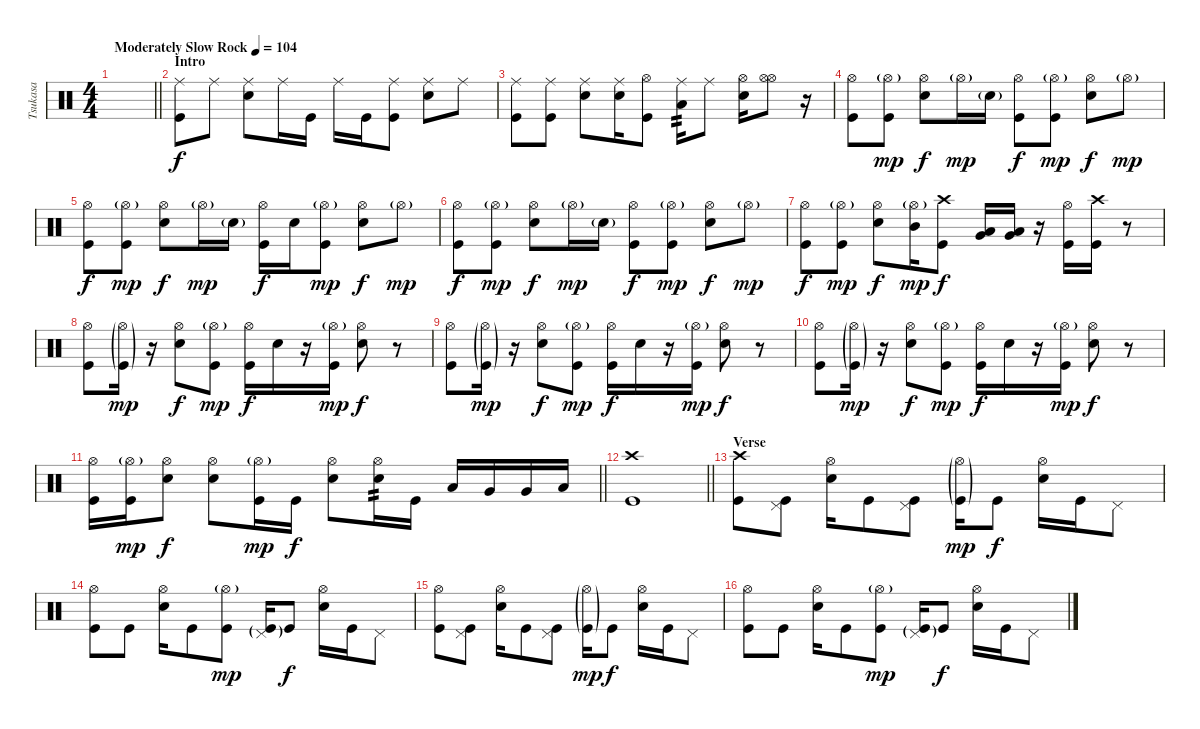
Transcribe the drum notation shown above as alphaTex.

\track ("Tsukasa" "Tsukasa") {instrument percussion}
\staff {score}
\articulation defaults
\ts (4 4)
\tempo (104 "Moderately Slow Rock")
\clef neutral
\barLineRight lightlight
\ks c
|
\section ("" "Intro")
("Ride (middle)" "Kick (hit)").8 "Ride (middle)".8 ("Ride (middle)" "Snare (hit) 2").8 "Ride (middle)".16 "Kick (hit)".16 "Ride (middle)".16 "Kick (hit)".16 ("Ride (middle)" "Kick (hit)").8 ("Ride (middle)" "Snare (hit) 2").8 "Ride (middle)".8 |
("Ride (middle)" "Kick (hit)").8 ("Ride (middle)" "Kick (hit)").8 ("Ride (middle)" "Snare (hit) 2").8 ("Ride (middle)" "Snare (hit) 2").16 ("Hi-Hat (open)" "Kick (hit)").8 ("Ride (middle)" "Low Tom (hit)").16{tp 2} "Ride (middle)".8 ("Hi-Hat (open)" "Snare (hit) 2").16 ("Hi-Hat (open)" "Hi-Hat (open)").8 r.16 |
("Hi-Hat (open)" "Kick (hit)").8 ("Hi-Hat (open)"{g} "Kick (hit)").8{dy mp} ("Hi-Hat (open)" "Snare (hit) 2").8{dy f} "Hi-Hat (open)"{g}.16{dy mp} "Snare (hit) 2"{g}.16 ("Hi-Hat (open)" "Kick (hit)").8{dy f} ("Hi-Hat (open)"{g} "Kick (hit)").8{dy mp} ("Hi-Hat (open)" "Snare (hit) 2").8{dy f} "Hi-Hat (open)"{g}.8{dy mp} |
("Hi-Hat (open)" "Kick (hit)").8{dy f} ("Hi-Hat (open)"{g} "Kick (hit)").8{dy mp} ("Hi-Hat (open)" "Snare (hit) 2").8{dy f} "Hi-Hat (open)"{g}.16{dy mp} "Snare (hit) 2"{g}.16 ("Hi-Hat (open)" "Kick (hit)").16{dy f} "Snare (hit) 2".16 ("Hi-Hat (open)"{g} "Kick (hit)").8{dy mp} ("Hi-Hat (open)" "Snare (hit) 2").8{dy f} "Hi-Hat (open)"{g}.8{dy mp} |
("Hi-Hat (open)" "Kick (hit)").8{dy f} ("Hi-Hat (open)"{g} "Kick (hit)").8{dy mp} ("Hi-Hat (open)" "Snare (hit) 2").8{dy f} "Hi-Hat (open)"{g}.16{dy mp} "Snare (hit) 2"{g}.16 ("Hi-Hat (open)" "Kick (hit)").8{dy f} ("Hi-Hat (open)"{g} "Kick (hit)").8{dy mp} ("Hi-Hat (open)" "Snare (hit) 2").8{dy f} "Hi-Hat (open)"{g}.8{dy mp} |
("Hi-Hat (open)" "Kick (hit)").8{dy f} ("Hi-Hat (open)"{g} "Kick (hit)").8{dy mp} ("Hi-Hat (open)" "Snare (hit) 2").8{dy f} ("Hi-Hat (open)"{g} "Mid Tom (hit)").16{dy mp} ("Crash high (hit)" "Kick (hit)").8{dy f} ("Very Low Tom (hit)" "Low Tom (hit)").16 ("Low Tom (hit)" "Very Low Tom (hit)").16 r.16 ("Hi-Hat (open)" "Kick (hit)").16 ("Crash high (hit)" "Kick (hit)").16 r.8 |
("Hi-Hat (open)" "Kick (hit)").8 ("Hi-Hat (open)"{g} "Kick (hit)"{g}).16{dy mp} r.16 ("Hi-Hat (open)" "Snare (hit) 2").8{dy f} ("Hi-Hat (open)"{g} "Kick (hit)").8{dy mp} ("Hi-Hat (open)" "Kick (hit)").16{dy f} "Snare (hit) 2".16 r.16 ("Hi-Hat (open)"{g} "Kick (hit)").16{dy mp} ("Hi-Hat (open)" "Snare (hit) 2").8{dy f} r.8 |
("Hi-Hat (open)" "Kick (hit)").8 ("Hi-Hat (open)"{g} "Kick (hit)"{g}).16{dy mp} r.16 ("Hi-Hat (open)" "Snare (hit) 2").8{dy f} ("Hi-Hat (open)"{g} "Kick (hit)").8{dy mp} ("Hi-Hat (open)" "Kick (hit)").16{dy f} "Snare (hit) 2".16 r.16 ("Hi-Hat (open)"{g} "Kick (hit)").16{dy mp} ("Hi-Hat (open)" "Snare (hit) 2").8{dy f} r.8 |
("Hi-Hat (open)" "Kick (hit)").8 ("Hi-Hat (open)"{g} "Kick (hit)"{g}).16{dy mp} r.16 ("Hi-Hat (open)" "Snare (hit) 2").8{dy f} ("Hi-Hat (open)"{g} "Kick (hit)").8{dy mp} ("Hi-Hat (open)" "Kick (hit)").16{dy f} "Snare (hit) 2".16 r.16 ("Hi-Hat (open)"{g} "Kick (hit)").16{dy mp} ("Hi-Hat (open)" "Snare (hit) 2").8{dy f} r.8 |
\barLineRight lightlight
("Hi-Hat (open)" "Kick (hit)").16 ("Hi-Hat (open)"{g} "Kick (hit)").16{dy mp} ("Hi-Hat (open)" "Snare (hit) 2").8{dy f} ("Hi-Hat (open)" "Snare (hit) 2").8 ("Hi-Hat (open)"{g} "Kick (hit)").16{dy mp} "Kick (hit)".16{dy f} ("Hi-Hat (open)" "Snare (hit) 2").8 ("Hi-Hat (open)" "Snare (hit) 2").16{tp 2} "Kick (hit)".16 "Low Tom (hit)".16 "Very Low Tom (hit)".16 "Very Low Tom (hit)".16 "Low Floor Tom (hit)".16 |
\section ("" "")
\barLineRight lightlight
("Crash high (hit)" "Kick (hit)").1 |
\section ("" "Verse")
("Crash high (hit)" "Kick (hit)").8 ("Pedal Hi-Hat (hit)" "Kick (hit)").8 ("Hi-Hat (open)" "Snare (hit) 2").16 "Kick (hit)".8 ("Pedal Hi-Hat (hit)" "Kick (hit)").8 ("Hi-Hat (open)"{g} "Kick (hit)"{g}).16{dy mp} "Kick (hit)".8{dy f} ("Hi-Hat (open)" "Snare (hit) 2").16 "Kick (hit)".16 "Pedal Hi-Hat (hit)".8 |
("Hi-Hat (open)" "Kick (hit)").8 "Kick (hit)".8 ("Hi-Hat (open)" "Snare (hit) 2").16 "Kick (hit)".8 ("Hi-Hat (open)"{g} "Kick (hit)").8{dy mp} ("Pedal Hi-Hat (hit)"{g} "Kick (hit)"{g}).16 "Kick (hit)".8{dy f} ("Hi-Hat (open)" "Snare (hit) 2").16 "Kick (hit)".16 "Pedal Hi-Hat (hit)".8 |
("Hi-Hat (open)" "Kick (hit)").8 ("Pedal Hi-Hat (hit)" "Kick (hit)").8 ("Hi-Hat (open)" "Snare (hit) 2").16 "Kick (hit)".8 ("Pedal Hi-Hat (hit)" "Kick (hit)").8 ("Hi-Hat (open)"{g} "Kick (hit)"{g}).16{dy mp} "Kick (hit)".8{dy f} ("Hi-Hat (open)" "Snare (hit) 2").16 "Kick (hit)".16 "Pedal Hi-Hat (hit)".8 |
("Hi-Hat (open)" "Kick (hit)").8 "Kick (hit)".8 ("Hi-Hat (open)" "Snare (hit) 2").16 "Kick (hit)".8 ("Hi-Hat (open)"{g} "Kick (hit)").8{dy mp} ("Pedal Hi-Hat (hit)"{g} "Kick (hit)"{g}).16 "Kick (hit)".8{dy f} ("Hi-Hat (open)" "Snare (hit) 2").16 "Kick (hit)".16 "Pedal Hi-Hat (hit)".8
